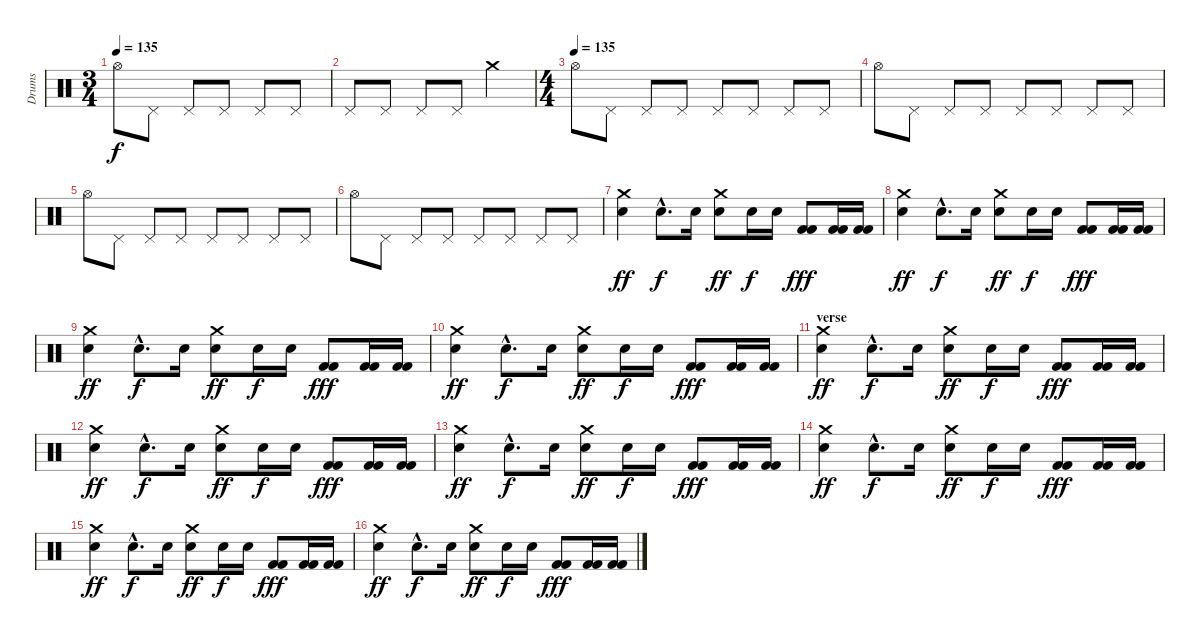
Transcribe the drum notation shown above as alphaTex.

\track ("Drums" "Drums") {instrument percussion}
\staff {score}
\articulation defaults
\ts (3 4)
\tempo 135
\clef neutral
\ks c "Hi-Hat (open)".8{dy f} "Pedal Hi-Hat (hit)".8 "Pedal Hi-Hat (hit)".8 "Pedal Hi-Hat (hit)".8 "Pedal Hi-Hat (hit)".8 "Pedal Hi-Hat (hit)".8
|
"Pedal Hi-Hat (hit)".8 "Pedal Hi-Hat (hit)".8 "Pedal Hi-Hat (hit)".8 "Pedal Hi-Hat (hit)".8 "Crash medium (hit)".4 |
\ts (4 4)
\tempo (135)
"Hi-Hat (open)".8 "Pedal Hi-Hat (hit)".8 "Pedal Hi-Hat (hit)".8 "Pedal Hi-Hat (hit)".8 "Pedal Hi-Hat (hit)".8 "Pedal Hi-Hat (hit)".8 "Pedal Hi-Hat (hit)".8 "Pedal Hi-Hat (hit)".8 |
"Hi-Hat (open)".8 "Pedal Hi-Hat (hit)".8 "Pedal Hi-Hat (hit)".8 "Pedal Hi-Hat (hit)".8 "Pedal Hi-Hat (hit)".8 "Pedal Hi-Hat (hit)".8 "Pedal Hi-Hat (hit)".8 "Pedal Hi-Hat (hit)".8 |
"Hi-Hat (open)".8 "Pedal Hi-Hat (hit)".8 "Pedal Hi-Hat (hit)".8 "Pedal Hi-Hat (hit)".8 "Pedal Hi-Hat (hit)".8 "Pedal Hi-Hat (hit)".8 "Pedal Hi-Hat (hit)".8 "Pedal Hi-Hat (hit)".8 |
"Hi-Hat (open)".8 "Pedal Hi-Hat (hit)".8 "Pedal Hi-Hat (hit)".8 "Pedal Hi-Hat (hit)".8 "Pedal Hi-Hat (hit)".8 "Pedal Hi-Hat (hit)".8 "Pedal Hi-Hat (hit)".8 "Pedal Hi-Hat (hit)".8 |
("Crash medium (hit)" "Snare (hit) 2").4{dy ff} "Snare (hit) 2"{hac}.8{d dy f} "Snare (hit) 2".16 ("Snare (hit) 2" "Crash medium (hit)").8{dy ff} "Snare (hit) 2".16{dy f} "Snare (hit) 2".16 ("Kick (hit) 2" "Kick (hit) 2").8{dy fff} ("Kick (hit) 2" "Kick (hit) 2").16 ("Kick (hit) 2" "Kick (hit) 2").16 |
("Crash medium (hit)" "Snare (hit) 2").4{dy ff} "Snare (hit) 2"{hac}.8{d dy f} "Snare (hit) 2".16 ("Snare (hit) 2" "Crash medium (hit)").8{dy ff} "Snare (hit) 2".16{dy f} "Snare (hit) 2".16 ("Kick (hit) 2" "Kick (hit) 2").8{dy fff} ("Kick (hit) 2" "Kick (hit) 2").16 ("Kick (hit) 2" "Kick (hit) 2").16 |
("Crash medium (hit)" "Snare (hit) 2").4{dy ff} "Snare (hit) 2"{hac}.8{d dy f} "Snare (hit) 2".16 ("Snare (hit) 2" "Crash medium (hit)").8{dy ff} "Snare (hit) 2".16{dy f} "Snare (hit) 2".16 ("Kick (hit) 2" "Kick (hit) 2").8{dy fff} ("Kick (hit) 2" "Kick (hit) 2").16 ("Kick (hit) 2" "Kick (hit) 2").16 |
("Crash medium (hit)" "Snare (hit) 2").4{dy ff} "Snare (hit) 2"{hac}.8{d dy f} "Snare (hit) 2".16 ("Snare (hit) 2" "Crash medium (hit)").8{dy ff} "Snare (hit) 2".16{dy f} "Snare (hit) 2".16 ("Kick (hit) 2" "Kick (hit) 2").8{dy fff} ("Kick (hit) 2" "Kick (hit) 2").16 ("Kick (hit) 2" "Kick (hit) 2").16 |
\section ("" "verse")
("Crash medium (hit)" "Snare (hit) 2").4{dy ff} "Snare (hit) 2"{hac}.8{d dy f} "Snare (hit) 2".16 ("Snare (hit) 2" "Crash medium (hit)").8{dy ff} "Snare (hit) 2".16{dy f} "Snare (hit) 2".16 ("Kick (hit) 2" "Kick (hit) 2").8{dy fff} ("Kick (hit) 2" "Kick (hit) 2").16 ("Kick (hit) 2" "Kick (hit) 2").16 |
("Crash medium (hit)" "Snare (hit) 2").4{dy ff} "Snare (hit) 2"{hac}.8{d dy f} "Snare (hit) 2".16 ("Snare (hit) 2" "Crash medium (hit)").8{dy ff} "Snare (hit) 2".16{dy f} "Snare (hit) 2".16 ("Kick (hit) 2" "Kick (hit) 2").8{dy fff} ("Kick (hit) 2" "Kick (hit) 2").16 ("Kick (hit) 2" "Kick (hit) 2").16 |
("Crash medium (hit)" "Snare (hit) 2").4{dy ff} "Snare (hit) 2"{hac}.8{d dy f} "Snare (hit) 2".16 ("Snare (hit) 2" "Crash medium (hit)").8{dy ff} "Snare (hit) 2".16{dy f} "Snare (hit) 2".16 ("Kick (hit) 2" "Kick (hit) 2").8{dy fff} ("Kick (hit) 2" "Kick (hit) 2").16 ("Kick (hit) 2" "Kick (hit) 2").16 |
("Crash medium (hit)" "Snare (hit) 2").4{dy ff} "Snare (hit) 2"{hac}.8{d dy f} "Snare (hit) 2".16 ("Snare (hit) 2" "Crash medium (hit)").8{dy ff} "Snare (hit) 2".16{dy f} "Snare (hit) 2".16 ("Kick (hit) 2" "Kick (hit) 2").8{dy fff} ("Kick (hit) 2" "Kick (hit) 2").16 ("Kick (hit) 2" "Kick (hit) 2").16 |
("Crash medium (hit)" "Snare (hit) 2").4{dy ff} "Snare (hit) 2"{hac}.8{d dy f} "Snare (hit) 2".16 ("Snare (hit) 2" "Crash medium (hit)").8{dy ff} "Snare (hit) 2".16{dy f} "Snare (hit) 2".16 ("Kick (hit) 2" "Kick (hit) 2").8{dy fff} ("Kick (hit) 2" "Kick (hit) 2").16 ("Kick (hit) 2" "Kick (hit) 2").16 |
("Crash medium (hit)" "Snare (hit) 2").4{dy ff} "Snare (hit) 2"{hac}.8{d dy f} "Snare (hit) 2".16 ("Snare (hit) 2" "Crash medium (hit)").8{dy ff} "Snare (hit) 2".16{dy f} "Snare (hit) 2".16 ("Kick (hit) 2" "Kick (hit) 2").8{dy fff} ("Kick (hit) 2" "Kick (hit) 2").16 ("Kick (hit) 2" "Kick (hit) 2").16
